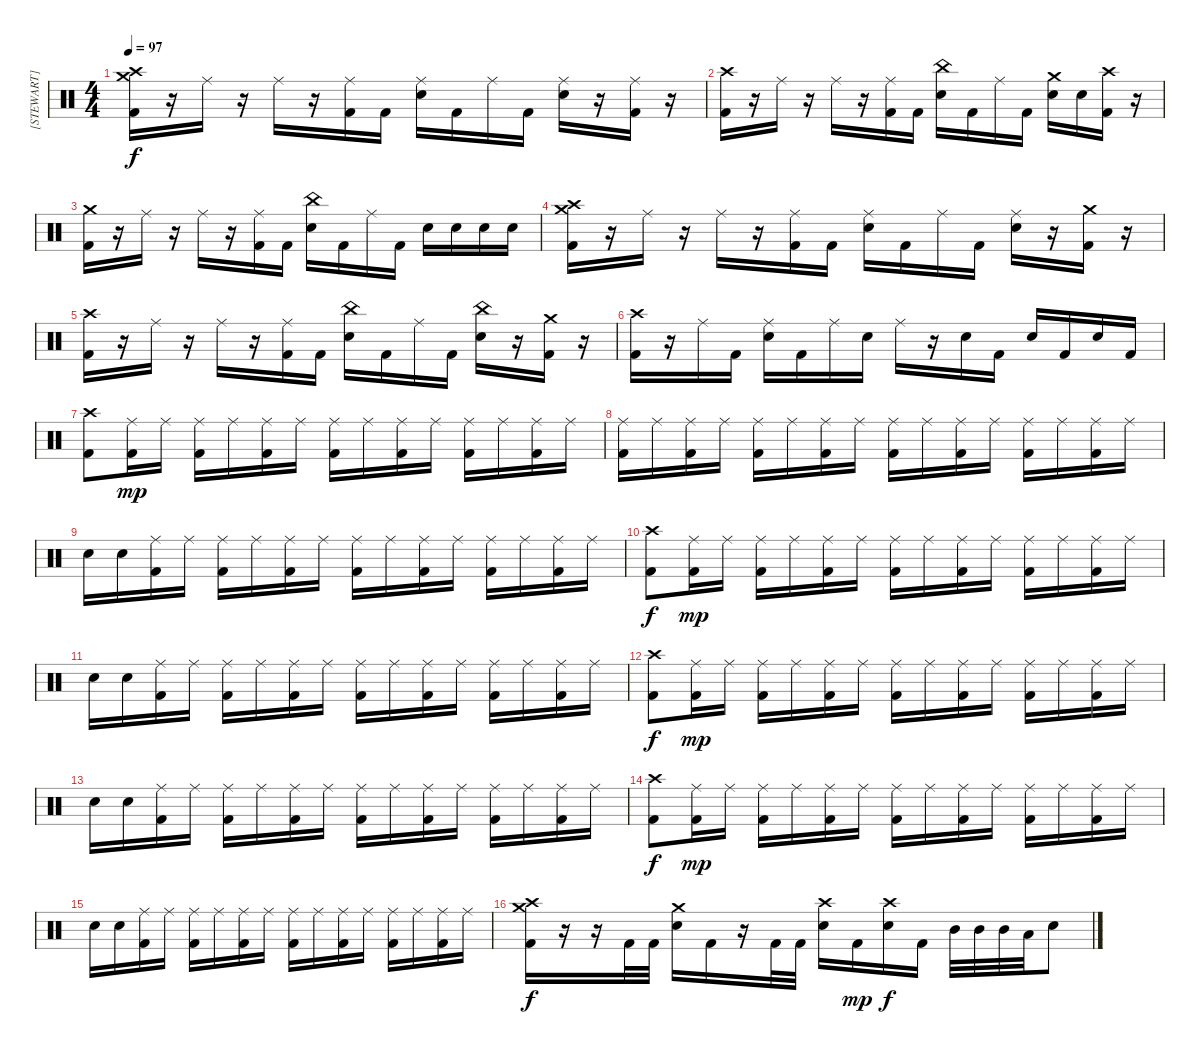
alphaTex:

\track ("[STEWART]" "[STEWART]") {instrument percussion}
\staff {score}
\articulation defaults
\ts (4 4)
\tempo 97
\clef neutral
\ks c
("Crash high (hit)" "Crash medium (hit)" "Kick (hit) 2").16{dy f} r.16 "Ride (middle)".16 r.16 "Ride (middle)".16 r.16 ("Ride (middle)" "Kick (hit) 2").16 "Kick (hit) 2".16 ("Ride (middle)" "Electric Snare (hit)").16 "Kick (hit) 2".16 "Ride (middle)".16 "Kick (hit) 2".16 ("Ride (middle)" "Electric Snare (hit)").16 r.16 ("Ride (middle)" "Kick (hit) 2").16 r.16 |
("Crash high (hit)" "Kick (hit) 2").16 r.16 "Ride (middle)".16 r.16 "Ride (middle)".16 r.16 ("Ride (middle)" "Kick (hit) 2").16 "Kick (hit) 2".16 ("China (hit)" "Electric Snare (hit)").16 "Kick (hit) 2".16 "Ride (middle)".16 "Kick (hit) 2".16 ("Crash medium (hit)" "Electric Snare (hit)").16 "Electric Snare (hit)".16 ("Crash high (hit)" "Kick (hit) 2").16 r.16 |
("Crash medium (hit)" "Kick (hit) 2").16 r.16 "Ride (middle)".16 r.16 "Ride (middle)".16 r.16 ("Ride (middle)" "Kick (hit) 2").16 "Kick (hit) 2".16 ("China (hit)" "Electric Snare (hit)").16 "Kick (hit) 2".16 "Ride (middle)".16 "Kick (hit) 2".16 "Electric Snare (hit)".16 "Electric Snare (hit)".16 "Electric Snare (hit)".16 "Electric Snare (hit)".16 |
("Crash high (hit)" "Crash medium (hit)" "Kick (hit) 2").16 r.16 "Ride (middle)".16 r.16 "Ride (middle)".16 r.16 ("Ride (middle)" "Kick (hit) 2").16 "Kick (hit) 2".16 ("Ride (middle)" "Electric Snare (hit)").16 "Kick (hit) 2".16 "Ride (middle)".16 "Kick (hit) 2".16 ("Ride (middle)" "Electric Snare (hit)").16 r.16 ("Crash medium (hit)" "Kick (hit) 2").16 r.16 |
("Crash high (hit)" "Kick (hit) 2").16 r.16 "Ride (middle)".16 r.16 "Ride (middle)".16 r.16 ("Ride (middle)" "Kick (hit) 2").16 "Kick (hit) 2".16 ("China (hit)" "Electric Snare (hit)").16 "Kick (hit) 2".16 "Ride (middle)".16 "Kick (hit) 2".16 ("China (hit)" "Electric Snare (hit)").16 r.16 ("Crash medium (hit)" "Kick (hit) 2").16 r.16 |
("Crash high (hit)" "Kick (hit) 2").16 r.16 "Ride (middle)".16 "Kick (hit) 2".16 ("Ride (middle)" "Electric Snare (hit)").16 "Kick (hit) 2".16 "Ride (middle)".16 "Electric Snare (hit)".16 "Ride (middle)".16 r.16 "Electric Snare (hit)".16 "Kick (hit) 2".16 "Electric Snare (hit)".16 "Kick (hit) 2".16 "Electric Snare (hit)".16 "Kick (hit) 2".16 |
("Crash high (hit)" "Kick (hit) 2").8 ("Ride (middle)" "Kick (hit) 2").16{dy mp} "Ride (middle)".16 ("Ride (middle)" "Kick (hit) 2").16 "Ride (middle)".16 ("Ride (middle)" "Kick (hit) 2").16 "Ride (middle)".16 ("Ride (middle)" "Kick (hit) 2").16 "Ride (middle)".16 ("Ride (middle)" "Kick (hit) 2").16 "Ride (middle)".16 ("Ride (middle)" "Kick (hit) 2").16 "Ride (middle)".16 ("Ride (middle)" "Kick (hit) 2").16 "Ride (middle)".16 |
("Ride (middle)" "Kick (hit) 2").16 "Ride (middle)".16 ("Ride (middle)" "Kick (hit) 2").16 "Ride (middle)".16 ("Ride (middle)" "Kick (hit) 2").16 "Ride (middle)".16 ("Ride (middle)" "Kick (hit) 2").16 "Ride (middle)".16 ("Ride (middle)" "Kick (hit) 2").16 "Ride (middle)".16 ("Ride (middle)" "Kick (hit) 2").16 "Ride (middle)".16 ("Ride (middle)" "Kick (hit) 2").16 "Ride (middle)".16 ("Ride (middle)" "Kick (hit) 2").16 "Ride (middle)".16 |
"Electric Snare (hit)".16 "Electric Snare (hit)".16 ("Ride (middle)" "Kick (hit) 2").16 "Ride (middle)".16 ("Ride (middle)" "Kick (hit) 2").16 "Ride (middle)".16 ("Ride (middle)" "Kick (hit) 2").16 "Ride (middle)".16 ("Ride (middle)" "Kick (hit) 2").16 "Ride (middle)".16 ("Ride (middle)" "Kick (hit) 2").16 "Ride (middle)".16 ("Ride (middle)" "Kick (hit) 2").16 "Ride (middle)".16 ("Ride (middle)" "Kick (hit) 2").16 "Ride (middle)".16 |
("Crash high (hit)" "Kick (hit) 2").8{dy f} ("Ride (middle)" "Kick (hit) 2").16{dy mp} "Ride (middle)".16 ("Ride (middle)" "Kick (hit) 2").16 "Ride (middle)".16 ("Ride (middle)" "Kick (hit) 2").16 "Ride (middle)".16 ("Ride (middle)" "Kick (hit) 2").16 "Ride (middle)".16 ("Ride (middle)" "Kick (hit) 2").16 "Ride (middle)".16 ("Ride (middle)" "Kick (hit) 2").16 "Ride (middle)".16 ("Ride (middle)" "Kick (hit) 2").16 "Ride (middle)".16 |
"Electric Snare (hit)".16 "Electric Snare (hit)".16 ("Ride (middle)" "Kick (hit) 2").16 "Ride (middle)".16 ("Ride (middle)" "Kick (hit) 2").16 "Ride (middle)".16 ("Ride (middle)" "Kick (hit) 2").16 "Ride (middle)".16 ("Ride (middle)" "Kick (hit) 2").16 "Ride (middle)".16 ("Ride (middle)" "Kick (hit) 2").16 "Ride (middle)".16 ("Ride (middle)" "Kick (hit) 2").16 "Ride (middle)".16 ("Ride (middle)" "Kick (hit) 2").16 "Ride (middle)".16 |
("Crash high (hit)" "Kick (hit) 2").8{dy f} ("Ride (middle)" "Kick (hit) 2").16{dy mp} "Ride (middle)".16 ("Ride (middle)" "Kick (hit) 2").16 "Ride (middle)".16 ("Ride (middle)" "Kick (hit) 2").16 "Ride (middle)".16 ("Ride (middle)" "Kick (hit) 2").16 "Ride (middle)".16 ("Ride (middle)" "Kick (hit) 2").16 "Ride (middle)".16 ("Ride (middle)" "Kick (hit) 2").16 "Ride (middle)".16 ("Ride (middle)" "Kick (hit) 2").16 "Ride (middle)".16 |
"Electric Snare (hit)".16 "Electric Snare (hit)".16 ("Ride (middle)" "Kick (hit) 2").16 "Ride (middle)".16 ("Ride (middle)" "Kick (hit) 2").16 "Ride (middle)".16 ("Ride (middle)" "Kick (hit) 2").16 "Ride (middle)".16 ("Ride (middle)" "Kick (hit) 2").16 "Ride (middle)".16 ("Ride (middle)" "Kick (hit) 2").16 "Ride (middle)".16 ("Ride (middle)" "Kick (hit) 2").16 "Ride (middle)".16 ("Ride (middle)" "Kick (hit) 2").16 "Ride (middle)".16 |
("Crash high (hit)" "Kick (hit) 2").8{dy f} ("Ride (middle)" "Kick (hit) 2").16{dy mp} "Ride (middle)".16 ("Ride (middle)" "Kick (hit) 2").16 "Ride (middle)".16 ("Ride (middle)" "Kick (hit) 2").16 "Ride (middle)".16 ("Ride (middle)" "Kick (hit) 2").16 "Ride (middle)".16 ("Ride (middle)" "Kick (hit) 2").16 "Ride (middle)".16 ("Ride (middle)" "Kick (hit) 2").16 "Ride (middle)".16 ("Ride (middle)" "Kick (hit) 2").16 "Ride (middle)".16 |
"Electric Snare (hit)".16 "Electric Snare (hit)".16 ("Ride (middle)" "Kick (hit) 2").16 "Ride (middle)".16 ("Ride (middle)" "Kick (hit) 2").16 "Ride (middle)".16 ("Ride (middle)" "Kick (hit) 2").16 "Ride (middle)".16 ("Ride (middle)" "Kick (hit) 2").16 "Ride (middle)".16 ("Ride (middle)" "Kick (hit) 2").16 "Ride (middle)".16 ("Ride (middle)" "Kick (hit) 2").16 "Ride (middle)".16 ("Ride (middle)" "Kick (hit) 2").16 "Ride (middle)".16 |
("Crash high (hit)" "Crash medium (hit)" "Kick (hit) 2").16{dy f} r.16 r.16 "Kick (hit) 2".32 "Kick (hit) 2".32 ("Crash medium (hit)" "Electric Snare (hit)").16 "Kick (hit) 2".16 r.16 "Kick (hit) 2".32 "Kick (hit) 2".32 ("Crash high (hit)" "Electric Snare (hit)").16 "Kick (hit) 2".16{dy mp} ("Crash high (hit)" "Electric Snare (hit)").16{dy f} "Kick (hit) 2".16 "Mid Tom (hit)".32 "Mid Tom (hit)".32 "Mid Tom (hit)".32 "Low Tom (hit)".32 "Electric Snare (hit)".8
